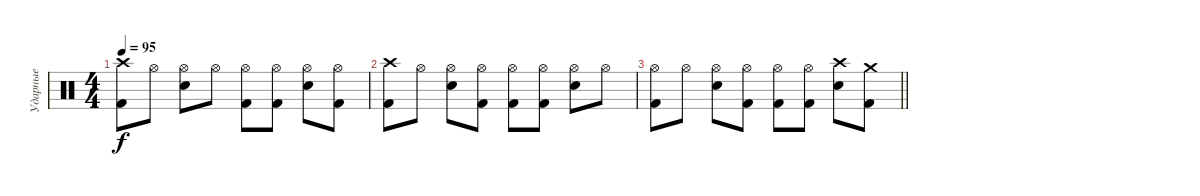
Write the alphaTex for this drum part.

\track ("Ударные" "Ударные") {instrument percussion}
\staff {score}
\articulation defaults
\ts (4 4)
\tempo 95
\clef neutral
\ks c
("Crash high (hit)" "Kick (hit) 2").8{dy f} "Hi-Hat (open)".8 ("Hi-Hat (open)" "Electric Snare (hit)").8 "Hi-Hat (open)".8 ("Hi-Hat (open)" "Kick (hit) 2").8 ("Hi-Hat (open)" "Kick (hit) 2").8 ("Hi-Hat (open)" "Electric Snare (hit)").8 ("Hi-Hat (open)" "Kick (hit) 2").8 |
("Crash high (hit)" "Kick (hit) 2").8 "Hi-Hat (open)".8 ("Hi-Hat (open)" "Electric Snare (hit)").8 ("Hi-Hat (open)" "Kick (hit) 2").8 ("Hi-Hat (open)" "Kick (hit) 2").8 ("Hi-Hat (open)" "Kick (hit) 2").8 ("Hi-Hat (open)" "Electric Snare (hit)").8 "Hi-Hat (open)".8 |
\barLineRight lightlight
("Hi-Hat (open)" "Kick (hit) 2").8 "Hi-Hat (open)".8 ("Hi-Hat (open)" "Electric Snare (hit)").8 ("Hi-Hat (open)" "Kick (hit) 2").8 ("Hi-Hat (open)" "Kick (hit) 2").8 ("Hi-Hat (open)" "Kick (hit) 2").8 ("Crash high (hit)" "Electric Snare (hit)").8 ("Crash medium (hit)" "Kick (hit) 2").8
